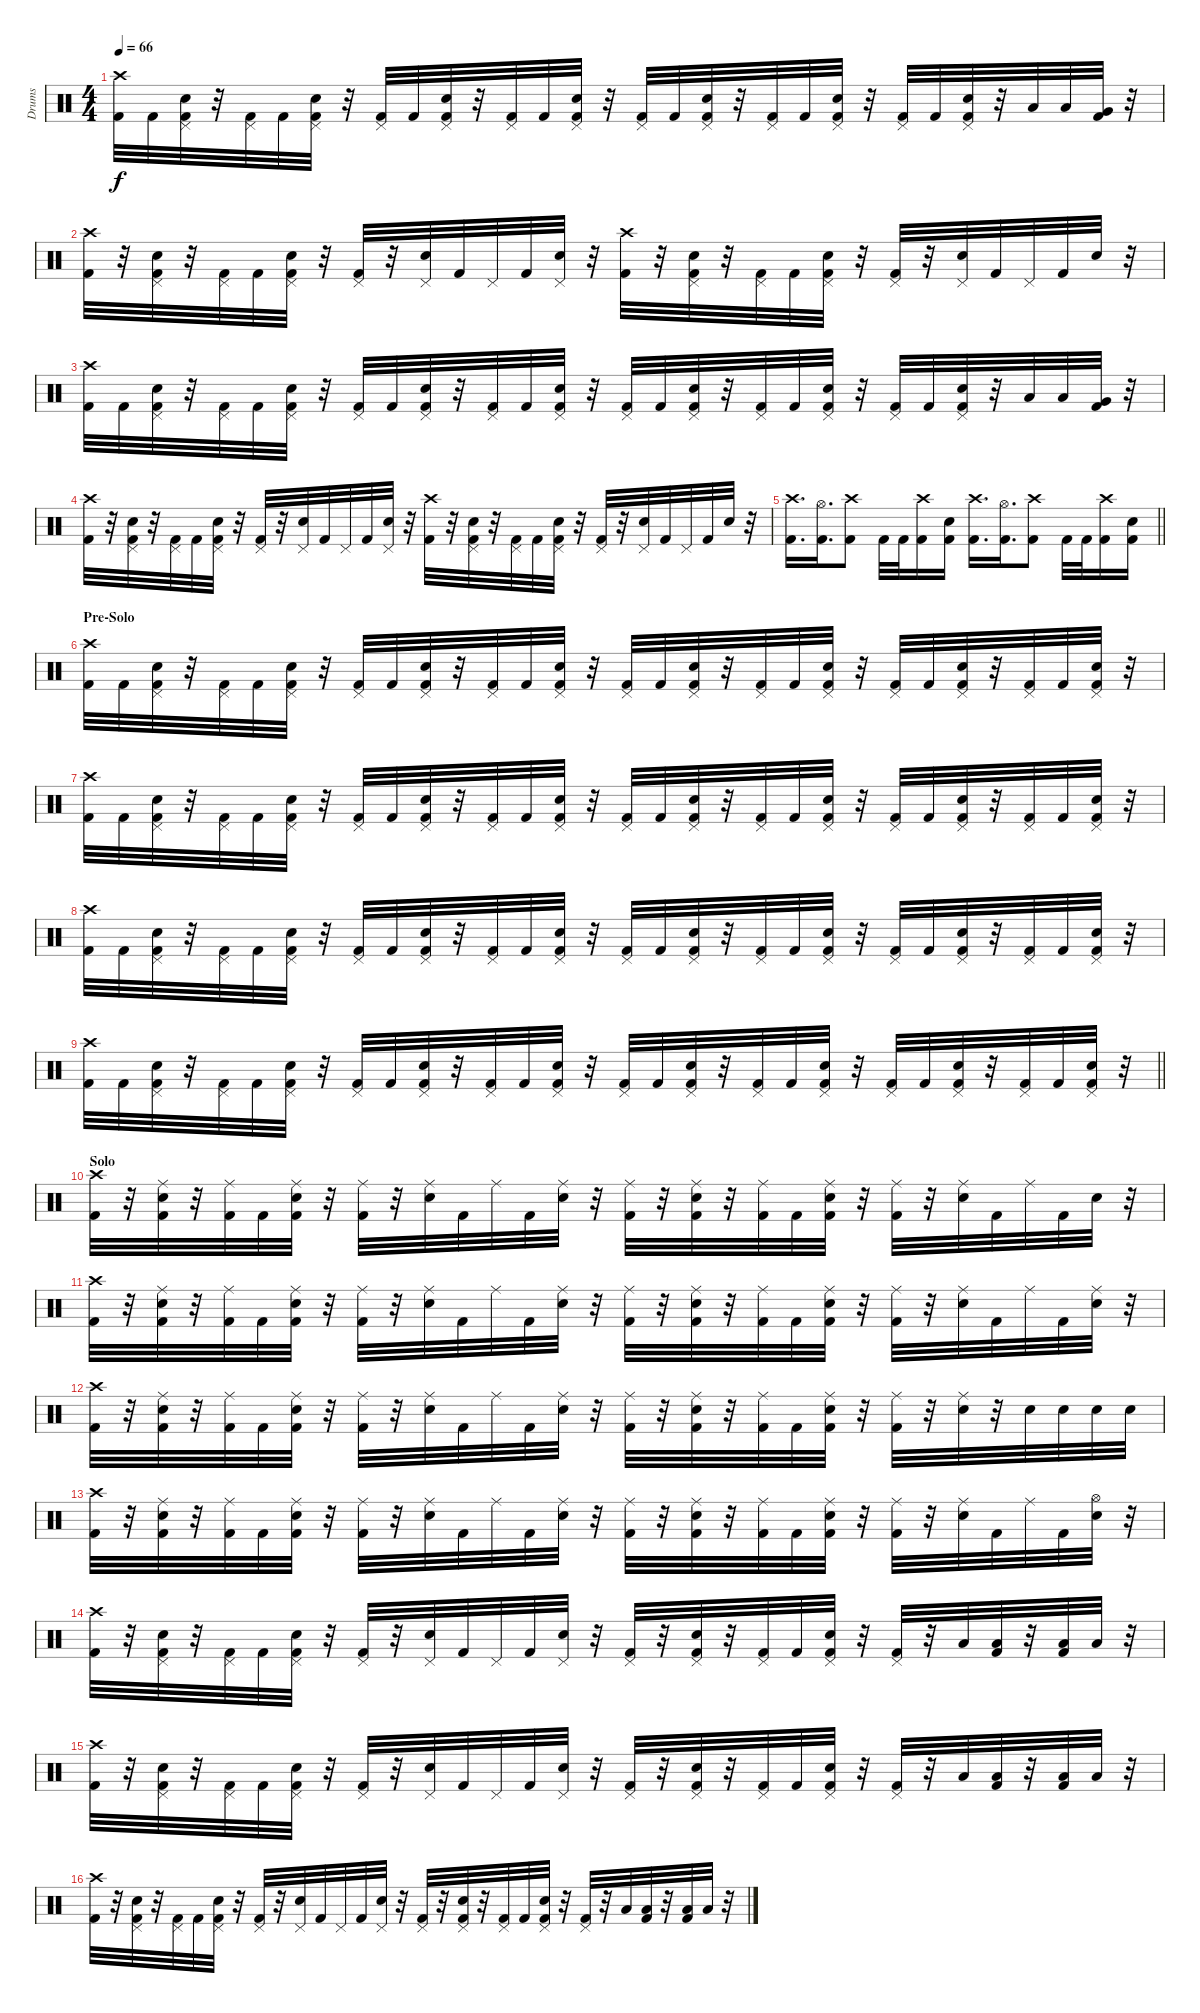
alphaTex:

\track ("Drums" "Drums") {instrument percussion}
\staff {score}
\articulation defaults
\ts (4 4)
\tempo 66
\clef neutral
\ks c
("Crash high (hit)" "Kick (hit) 2").32{dy f} "Kick (hit) 2".32 ("Pedal Hi-Hat (hit)" "Snare (hit) 2" "Kick (hit) 2").32 r.32 ("Pedal Hi-Hat (hit)" "Kick (hit) 2").32 "Kick (hit) 2".32 ("Pedal Hi-Hat (hit)" "Snare (hit) 2" "Kick (hit) 2").32 r.32 ("Pedal Hi-Hat (hit)" "Kick (hit) 2").32 "Kick (hit) 2".32 ("Pedal Hi-Hat (hit)" "Snare (hit) 2" "Kick (hit) 2").32 r.32 ("Pedal Hi-Hat (hit)" "Kick (hit) 2").32 "Kick (hit) 2".32 ("Pedal Hi-Hat (hit)" "Snare (hit) 2" "Kick (hit) 2").32 r.32 ("Pedal Hi-Hat (hit)" "Kick (hit) 2").32 "Kick (hit) 2".32 ("Pedal Hi-Hat (hit)" "Snare (hit) 2" "Kick (hit) 2").32 r.32 ("Pedal Hi-Hat (hit)" "Kick (hit) 2").32 "Kick (hit) 2".32 ("Pedal Hi-Hat (hit)" "Snare (hit) 2" "Kick (hit) 2").32 r.32 ("Pedal Hi-Hat (hit)" "Kick (hit) 2").32 "Kick (hit) 2".32 ("Pedal Hi-Hat (hit)" "Snare (hit) 2" "Kick (hit) 2").32 r.32 "Low Tom (hit)".32 "Low Tom (hit)".32 ("Very Low Tom (hit)" "Kick (hit) 2").32 r.32 |
("Crash high (hit)" "Kick (hit) 2").32 r.32 ("Pedal Hi-Hat (hit)" "Snare (hit) 2" "Kick (hit) 2").32 r.32 ("Pedal Hi-Hat (hit)" "Kick (hit) 2").32 "Kick (hit) 2".32 ("Pedal Hi-Hat (hit)" "Snare (hit) 2" "Kick (hit) 2").32 r.32 ("Pedal Hi-Hat (hit)" "Kick (hit) 2").32 r.32 ("Pedal Hi-Hat (hit)" "Snare (hit) 2").32 "Kick (hit) 2".32 "Pedal Hi-Hat (hit)".32 "Kick (hit) 2".32 ("Pedal Hi-Hat (hit)" "Snare (hit) 2").32 r.32 ("Crash high (hit)" "Kick (hit) 2").32 r.32 ("Pedal Hi-Hat (hit)" "Snare (hit) 2" "Kick (hit) 2").32 r.32 ("Pedal Hi-Hat (hit)" "Kick (hit) 2").32 "Kick (hit) 2".32 ("Pedal Hi-Hat (hit)" "Snare (hit) 2" "Kick (hit) 2").32 r.32 ("Pedal Hi-Hat (hit)" "Kick (hit) 2").32 r.32 ("Pedal Hi-Hat (hit)" "Snare (hit) 2").32 "Kick (hit) 2".32 "Pedal Hi-Hat (hit)".32 "Kick (hit) 2".32 "Snare (hit) 2".32 r.32 |
("Crash high (hit)" "Kick (hit) 2").32 "Kick (hit) 2".32 ("Pedal Hi-Hat (hit)" "Snare (hit) 2" "Kick (hit) 2").32 r.32 ("Pedal Hi-Hat (hit)" "Kick (hit) 2").32 "Kick (hit) 2".32 ("Pedal Hi-Hat (hit)" "Snare (hit) 2" "Kick (hit) 2").32 r.32 ("Pedal Hi-Hat (hit)" "Kick (hit) 2").32 "Kick (hit) 2".32 ("Pedal Hi-Hat (hit)" "Snare (hit) 2" "Kick (hit) 2").32 r.32 ("Pedal Hi-Hat (hit)" "Kick (hit) 2").32 "Kick (hit) 2".32 ("Pedal Hi-Hat (hit)" "Snare (hit) 2" "Kick (hit) 2").32 r.32 ("Pedal Hi-Hat (hit)" "Kick (hit) 2").32 "Kick (hit) 2".32 ("Pedal Hi-Hat (hit)" "Snare (hit) 2" "Kick (hit) 2").32 r.32 ("Pedal Hi-Hat (hit)" "Kick (hit) 2").32 "Kick (hit) 2".32 ("Pedal Hi-Hat (hit)" "Snare (hit) 2" "Kick (hit) 2").32 r.32 ("Pedal Hi-Hat (hit)" "Kick (hit) 2").32 "Kick (hit) 2".32 ("Pedal Hi-Hat (hit)" "Snare (hit) 2" "Kick (hit) 2").32 r.32 "Low Tom (hit)".32 "Low Tom (hit)".32 ("Very Low Tom (hit)" "Kick (hit) 2").32 r.32 |
("Crash high (hit)" "Kick (hit) 2").32 r.32 ("Pedal Hi-Hat (hit)" "Snare (hit) 2" "Kick (hit) 2").32 r.32 ("Pedal Hi-Hat (hit)" "Kick (hit) 2").32 "Kick (hit) 2".32 ("Pedal Hi-Hat (hit)" "Snare (hit) 2" "Kick (hit) 2").32 r.32 ("Pedal Hi-Hat (hit)" "Kick (hit) 2").32 r.32 ("Pedal Hi-Hat (hit)" "Snare (hit) 2").32 "Kick (hit) 2".32 "Pedal Hi-Hat (hit)".32 "Kick (hit) 2".32 ("Pedal Hi-Hat (hit)" "Snare (hit) 2").32 r.32 ("Crash high (hit)" "Kick (hit) 2").32 r.32 ("Pedal Hi-Hat (hit)" "Snare (hit) 2" "Kick (hit) 2").32 r.32 ("Pedal Hi-Hat (hit)" "Kick (hit) 2").32 "Kick (hit) 2".32 ("Pedal Hi-Hat (hit)" "Snare (hit) 2" "Kick (hit) 2").32 r.32 ("Pedal Hi-Hat (hit)" "Kick (hit) 2").32 r.32 ("Pedal Hi-Hat (hit)" "Snare (hit) 2").32 "Kick (hit) 2".32 "Pedal Hi-Hat (hit)".32 "Kick (hit) 2".32 "Snare (hit) 2".32 r.32 |
\barLineRight lightlight
("Crash high (hit)" "Kick (hit) 2").16{d} ("Hi-Hat (open)" "Kick (hit) 2").16{d} ("Crash high (hit)" "Kick (hit) 2").8 "Kick (hit) 2".32 "Kick (hit) 2".32 ("Crash high (hit)" "Kick (hit) 2").16 ("Snare (hit) 2" "Kick (hit) 2").16 ("Crash high (hit)" "Kick (hit) 2").16{d} ("Hi-Hat (open)" "Kick (hit) 2").16{d} ("Crash high (hit)" "Kick (hit) 2").8 "Kick (hit) 2".32 "Kick (hit) 2".32 ("Crash high (hit)" "Kick (hit) 2").16 ("Snare (hit) 2" "Kick (hit) 2").16 |
\section ("" "Pre-Solo")
("Crash high (hit)" "Kick (hit) 2").32 "Kick (hit) 2".32 ("Pedal Hi-Hat (hit)" "Snare (hit) 2" "Kick (hit) 2").32 r.32 ("Pedal Hi-Hat (hit)" "Kick (hit) 2").32 "Kick (hit) 2".32 ("Pedal Hi-Hat (hit)" "Snare (hit) 2" "Kick (hit) 2").32 r.32 ("Pedal Hi-Hat (hit)" "Kick (hit) 2").32 "Kick (hit) 2".32 ("Pedal Hi-Hat (hit)" "Snare (hit) 2" "Kick (hit) 2").32 r.32 ("Pedal Hi-Hat (hit)" "Kick (hit) 2").32 "Kick (hit) 2".32 ("Pedal Hi-Hat (hit)" "Snare (hit) 2" "Kick (hit) 2").32 r.32 ("Pedal Hi-Hat (hit)" "Kick (hit) 2").32 "Kick (hit) 2".32 ("Pedal Hi-Hat (hit)" "Snare (hit) 2" "Kick (hit) 2").32 r.32 ("Pedal Hi-Hat (hit)" "Kick (hit) 2").32 "Kick (hit) 2".32 ("Pedal Hi-Hat (hit)" "Snare (hit) 2" "Kick (hit) 2").32 r.32 ("Pedal Hi-Hat (hit)" "Kick (hit) 2").32 "Kick (hit) 2".32 ("Pedal Hi-Hat (hit)" "Snare (hit) 2" "Kick (hit) 2").32 r.32 ("Pedal Hi-Hat (hit)" "Kick (hit) 2").32 "Kick (hit) 2".32 ("Pedal Hi-Hat (hit)" "Snare (hit) 2" "Kick (hit) 2").32 r.32 |
("Crash high (hit)" "Kick (hit) 2").32 "Kick (hit) 2".32 ("Pedal Hi-Hat (hit)" "Snare (hit) 2" "Kick (hit) 2").32 r.32 ("Pedal Hi-Hat (hit)" "Kick (hit) 2").32 "Kick (hit) 2".32 ("Pedal Hi-Hat (hit)" "Snare (hit) 2" "Kick (hit) 2").32 r.32 ("Pedal Hi-Hat (hit)" "Kick (hit) 2").32 "Kick (hit) 2".32 ("Pedal Hi-Hat (hit)" "Snare (hit) 2" "Kick (hit) 2").32 r.32 ("Pedal Hi-Hat (hit)" "Kick (hit) 2").32 "Kick (hit) 2".32 ("Pedal Hi-Hat (hit)" "Snare (hit) 2" "Kick (hit) 2").32 r.32 ("Pedal Hi-Hat (hit)" "Kick (hit) 2").32 "Kick (hit) 2".32 ("Pedal Hi-Hat (hit)" "Snare (hit) 2" "Kick (hit) 2").32 r.32 ("Pedal Hi-Hat (hit)" "Kick (hit) 2").32 "Kick (hit) 2".32 ("Pedal Hi-Hat (hit)" "Snare (hit) 2" "Kick (hit) 2").32 r.32 ("Pedal Hi-Hat (hit)" "Kick (hit) 2").32 "Kick (hit) 2".32 ("Pedal Hi-Hat (hit)" "Snare (hit) 2" "Kick (hit) 2").32 r.32 ("Pedal Hi-Hat (hit)" "Kick (hit) 2").32 "Kick (hit) 2".32 ("Pedal Hi-Hat (hit)" "Snare (hit) 2" "Kick (hit) 2").32 r.32 |
("Crash high (hit)" "Kick (hit) 2").32 "Kick (hit) 2".32 ("Pedal Hi-Hat (hit)" "Snare (hit) 2" "Kick (hit) 2").32 r.32 ("Pedal Hi-Hat (hit)" "Kick (hit) 2").32 "Kick (hit) 2".32 ("Pedal Hi-Hat (hit)" "Snare (hit) 2" "Kick (hit) 2").32 r.32 ("Pedal Hi-Hat (hit)" "Kick (hit) 2").32 "Kick (hit) 2".32 ("Pedal Hi-Hat (hit)" "Snare (hit) 2" "Kick (hit) 2").32 r.32 ("Pedal Hi-Hat (hit)" "Kick (hit) 2").32 "Kick (hit) 2".32 ("Pedal Hi-Hat (hit)" "Snare (hit) 2" "Kick (hit) 2").32 r.32 ("Pedal Hi-Hat (hit)" "Kick (hit) 2").32 "Kick (hit) 2".32 ("Pedal Hi-Hat (hit)" "Snare (hit) 2" "Kick (hit) 2").32 r.32 ("Pedal Hi-Hat (hit)" "Kick (hit) 2").32 "Kick (hit) 2".32 ("Pedal Hi-Hat (hit)" "Snare (hit) 2" "Kick (hit) 2").32 r.32 ("Pedal Hi-Hat (hit)" "Kick (hit) 2").32 "Kick (hit) 2".32 ("Pedal Hi-Hat (hit)" "Snare (hit) 2" "Kick (hit) 2").32 r.32 ("Pedal Hi-Hat (hit)" "Kick (hit) 2").32 "Kick (hit) 2".32 ("Pedal Hi-Hat (hit)" "Snare (hit) 2" "Kick (hit) 2").32 r.32 |
\barLineRight lightlight
("Crash high (hit)" "Kick (hit) 2").32 "Kick (hit) 2".32 ("Pedal Hi-Hat (hit)" "Snare (hit) 2" "Kick (hit) 2").32 r.32 ("Pedal Hi-Hat (hit)" "Kick (hit) 2").32 "Kick (hit) 2".32 ("Pedal Hi-Hat (hit)" "Snare (hit) 2" "Kick (hit) 2").32 r.32 ("Pedal Hi-Hat (hit)" "Kick (hit) 2").32 "Kick (hit) 2".32 ("Pedal Hi-Hat (hit)" "Snare (hit) 2" "Kick (hit) 2").32 r.32 ("Pedal Hi-Hat (hit)" "Kick (hit) 2").32 "Kick (hit) 2".32 ("Pedal Hi-Hat (hit)" "Snare (hit) 2" "Kick (hit) 2").32 r.32 ("Pedal Hi-Hat (hit)" "Kick (hit) 2").32 "Kick (hit) 2".32 ("Pedal Hi-Hat (hit)" "Snare (hit) 2" "Kick (hit) 2").32 r.32 ("Pedal Hi-Hat (hit)" "Kick (hit) 2").32 "Kick (hit) 2".32 ("Pedal Hi-Hat (hit)" "Snare (hit) 2" "Kick (hit) 2").32 r.32 ("Pedal Hi-Hat (hit)" "Kick (hit) 2").32 "Kick (hit) 2".32 ("Pedal Hi-Hat (hit)" "Snare (hit) 2" "Kick (hit) 2").32 r.32 ("Pedal Hi-Hat (hit)" "Kick (hit) 2").32 "Kick (hit) 2".32 ("Pedal Hi-Hat (hit)" "Snare (hit) 2" "Kick (hit) 2").32 r.32 |
\section ("" "Solo")
("Crash high (hit)" "Kick (hit) 2").32 r.32 ("Ride (middle)" "Snare (hit) 2" "Kick (hit) 2").32 r.32 ("Ride (middle)" "Kick (hit) 2").32 "Kick (hit) 2".32 ("Ride (middle)" "Snare (hit) 2" "Kick (hit) 2").32 r.32 ("Ride (middle)" "Kick (hit) 2").32 r.32 ("Ride (middle)" "Snare (hit) 2").32 "Kick (hit) 2".32 "Ride (middle)".32 "Kick (hit) 2".32 ("Ride (middle)" "Snare (hit) 2").32 r.32 ("Ride (middle)" "Kick (hit) 2").32 r.32 ("Ride (middle)" "Snare (hit) 2" "Kick (hit) 2").32 r.32 ("Ride (middle)" "Kick (hit) 2").32 "Kick (hit) 2".32 ("Ride (middle)" "Snare (hit) 2" "Kick (hit) 2").32 r.32 ("Ride (middle)" "Kick (hit) 2").32 r.32 ("Ride (middle)" "Snare (hit) 2").32 "Kick (hit) 2".32 "Ride (middle)".32 "Kick (hit) 2".32 "Snare (hit) 2".32 r.32 |
("Crash high (hit)" "Kick (hit) 2").32 r.32 ("Ride (middle)" "Snare (hit) 2" "Kick (hit) 2").32 r.32 ("Ride (middle)" "Kick (hit) 2").32 "Kick (hit) 2".32 ("Ride (middle)" "Snare (hit) 2" "Kick (hit) 2").32 r.32 ("Ride (middle)" "Kick (hit) 2").32 r.32 ("Ride (middle)" "Snare (hit) 2").32 "Kick (hit) 2".32 "Ride (middle)".32 "Kick (hit) 2".32 ("Ride (middle)" "Snare (hit) 2").32 r.32 ("Ride (middle)" "Kick (hit) 2").32 r.32 ("Ride (middle)" "Snare (hit) 2" "Kick (hit) 2").32 r.32 ("Ride (middle)" "Kick (hit) 2").32 "Kick (hit) 2".32 ("Ride (middle)" "Snare (hit) 2" "Kick (hit) 2").32 r.32 ("Ride (middle)" "Kick (hit) 2").32 r.32 ("Ride (middle)" "Snare (hit) 2").32 "Kick (hit) 2".32 "Ride (middle)".32 "Kick (hit) 2".32 ("Ride (middle)" "Snare (hit) 2").32 r.32 |
("Crash high (hit)" "Kick (hit) 2").32 r.32 ("Ride (middle)" "Snare (hit) 2" "Kick (hit) 2").32 r.32 ("Ride (middle)" "Kick (hit) 2").32 "Kick (hit) 2".32 ("Ride (middle)" "Snare (hit) 2" "Kick (hit) 2").32 r.32 ("Ride (middle)" "Kick (hit) 2").32 r.32 ("Ride (middle)" "Snare (hit) 2").32 "Kick (hit) 2".32 "Ride (middle)".32 "Kick (hit) 2".32 ("Ride (middle)" "Snare (hit) 2").32 r.32 ("Ride (middle)" "Kick (hit) 2").32 r.32 ("Ride (middle)" "Snare (hit) 2" "Kick (hit) 2").32 r.32 ("Ride (middle)" "Kick (hit) 2").32 "Kick (hit) 2".32 ("Ride (middle)" "Snare (hit) 2" "Kick (hit) 2").32 r.32 ("Ride (middle)" "Kick (hit) 2").32 r.32 ("Ride (middle)" "Snare (hit) 2").32 r.32 "Snare (hit) 2".32 "Snare (hit) 2".32 "Snare (hit) 2".32 "Snare (hit) 2".32 |
("Crash high (hit)" "Kick (hit) 2").32 r.32 ("Ride (middle)" "Snare (hit) 2" "Kick (hit) 2").32 r.32 ("Ride (middle)" "Kick (hit) 2").32 "Kick (hit) 2".32 ("Ride (middle)" "Snare (hit) 2" "Kick (hit) 2").32 r.32 ("Ride (middle)" "Kick (hit) 2").32 r.32 ("Ride (middle)" "Snare (hit) 2").32 "Kick (hit) 2".32 "Ride (middle)".32 "Kick (hit) 2".32 ("Ride (middle)" "Snare (hit) 2").32 r.32 ("Ride (middle)" "Kick (hit) 2").32 r.32 ("Ride (middle)" "Snare (hit) 2" "Kick (hit) 2").32 r.32 ("Ride (middle)" "Kick (hit) 2").32 "Kick (hit) 2".32 ("Ride (middle)" "Snare (hit) 2" "Kick (hit) 2").32 r.32 ("Ride (middle)" "Kick (hit) 2").32 r.32 ("Ride (middle)" "Snare (hit) 2").32 "Kick (hit) 2".32 "Ride (middle)".32 "Kick (hit) 2".32 ("Hi-Hat (open)" "Snare (hit) 2").32 r.32 |
("Crash high (hit)" "Kick (hit) 2").32 r.32 ("Pedal Hi-Hat (hit)" "Snare (hit) 2" "Kick (hit) 2").32 r.32 ("Pedal Hi-Hat (hit)" "Kick (hit) 2").32 "Kick (hit) 2".32 ("Pedal Hi-Hat (hit)" "Snare (hit) 2" "Kick (hit) 2").32 r.32 ("Pedal Hi-Hat (hit)" "Kick (hit) 2").32 r.32 ("Pedal Hi-Hat (hit)" "Snare (hit) 2").32 "Kick (hit) 2".32 "Pedal Hi-Hat (hit)".32 "Kick (hit) 2".32 ("Pedal Hi-Hat (hit)" "Snare (hit) 2").32 r.32 ("Pedal Hi-Hat (hit)" "Kick (hit) 2").32 r.32 ("Pedal Hi-Hat (hit)" "Snare (hit) 2" "Kick (hit) 2").32 r.32 ("Pedal Hi-Hat (hit)" "Kick (hit) 2").32 "Kick (hit) 2".32 ("Pedal Hi-Hat (hit)" "Snare (hit) 2" "Kick (hit) 2").32 r.32 ("Pedal Hi-Hat (hit)" "Kick (hit) 2").32 r.32 "Low Tom (hit)".32 ("Low Tom (hit)" "Kick (hit) 2").32 r.32 ("Low Tom (hit)" "Kick (hit) 2").32 "Low Tom (hit)".32 r.32 |
("Crash high (hit)" "Kick (hit) 2").32 r.32 ("Pedal Hi-Hat (hit)" "Snare (hit) 2" "Kick (hit) 2").32 r.32 ("Pedal Hi-Hat (hit)" "Kick (hit) 2").32 "Kick (hit) 2".32 ("Pedal Hi-Hat (hit)" "Snare (hit) 2" "Kick (hit) 2").32 r.32 ("Pedal Hi-Hat (hit)" "Kick (hit) 2").32 r.32 ("Pedal Hi-Hat (hit)" "Snare (hit) 2").32 "Kick (hit) 2".32 "Pedal Hi-Hat (hit)".32 "Kick (hit) 2".32 ("Pedal Hi-Hat (hit)" "Snare (hit) 2").32 r.32 ("Pedal Hi-Hat (hit)" "Kick (hit) 2").32 r.32 ("Pedal Hi-Hat (hit)" "Snare (hit) 2" "Kick (hit) 2").32 r.32 ("Pedal Hi-Hat (hit)" "Kick (hit) 2").32 "Kick (hit) 2".32 ("Pedal Hi-Hat (hit)" "Snare (hit) 2" "Kick (hit) 2").32 r.32 ("Pedal Hi-Hat (hit)" "Kick (hit) 2").32 r.32 "Low Tom (hit)".32 ("Low Tom (hit)" "Kick (hit) 2").32 r.32 ("Low Tom (hit)" "Kick (hit) 2").32 "Low Tom (hit)".32 r.32 |
("Crash high (hit)" "Kick (hit) 2").32 r.32 ("Pedal Hi-Hat (hit)" "Snare (hit) 2" "Kick (hit) 2").32 r.32 ("Pedal Hi-Hat (hit)" "Kick (hit) 2").32 "Kick (hit) 2".32 ("Pedal Hi-Hat (hit)" "Snare (hit) 2" "Kick (hit) 2").32 r.32 ("Pedal Hi-Hat (hit)" "Kick (hit) 2").32 r.32 ("Pedal Hi-Hat (hit)" "Snare (hit) 2").32 "Kick (hit) 2".32 "Pedal Hi-Hat (hit)".32 "Kick (hit) 2".32 ("Pedal Hi-Hat (hit)" "Snare (hit) 2").32 r.32 ("Pedal Hi-Hat (hit)" "Kick (hit) 2").32 r.32 ("Pedal Hi-Hat (hit)" "Snare (hit) 2" "Kick (hit) 2").32 r.32 ("Pedal Hi-Hat (hit)" "Kick (hit) 2").32 "Kick (hit) 2".32 ("Pedal Hi-Hat (hit)" "Snare (hit) 2" "Kick (hit) 2").32 r.32 ("Pedal Hi-Hat (hit)" "Kick (hit) 2").32 r.32 "Low Tom (hit)".32 ("Low Tom (hit)" "Kick (hit) 2").32 r.32 ("Low Tom (hit)" "Kick (hit) 2").32 "Low Tom (hit)".32 r.32
